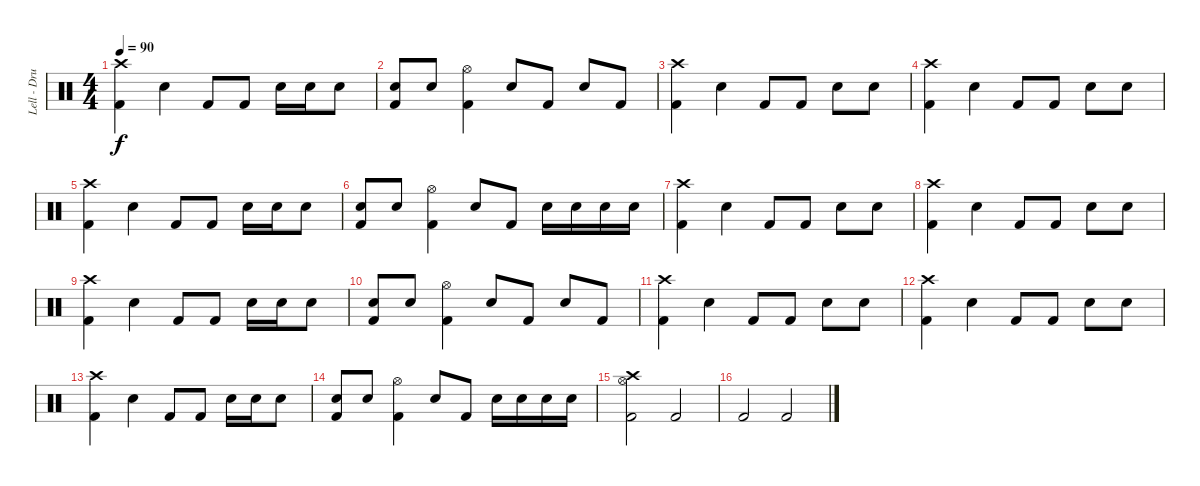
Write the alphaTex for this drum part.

\track ("Lell - Drums" "Lell - Dru") {instrument percussion}
\staff {score}
\articulation defaults
\ts (4 4)
\tempo 90
\clef neutral
\ks c
("Crash high (hit)" "Kick (hit) 2").4{dy f} "Snare (hit) 2".4 "Kick (hit) 2".8 "Kick (hit) 2".8 "Snare (hit) 2".16 "Snare (hit) 2".16 "Snare (hit) 2".8 |
("Snare (hit) 2" "Kick (hit) 2").8 "Snare (hit) 2".8 ("Hi-Hat (open)" "Kick (hit) 2").4 "Snare (hit) 2".8 "Kick (hit) 2".8 "Snare (hit) 2".8 "Kick (hit) 2".8 |
("Crash high (hit)" "Kick (hit) 2").4 "Snare (hit) 2".4 "Kick (hit) 2".8 "Kick (hit) 2".8 "Snare (hit) 2".8 "Snare (hit) 2".8 |
("Crash high (hit)" "Kick (hit) 2").4 "Snare (hit) 2".4 "Kick (hit) 2".8 "Kick (hit) 2".8 "Snare (hit) 2".8 "Snare (hit) 2".8 |
("Crash high (hit)" "Kick (hit) 2").4 "Snare (hit) 2".4 "Kick (hit) 2".8 "Kick (hit) 2".8 "Snare (hit) 2".16 "Snare (hit) 2".16 "Snare (hit) 2".8 |
("Snare (hit) 2" "Kick (hit) 2").8 "Snare (hit) 2".8 ("Hi-Hat (open)" "Kick (hit) 2").4 "Snare (hit) 2".8 "Kick (hit) 2".8 "Snare (hit) 2".16 "Snare (hit) 2".16 "Snare (hit) 2".16 "Snare (hit) 2".16 |
("Crash high (hit)" "Kick (hit) 2").4 "Snare (hit) 2".4 "Kick (hit) 2".8 "Kick (hit) 2".8 "Snare (hit) 2".8 "Snare (hit) 2".8 |
("Crash high (hit)" "Kick (hit) 2").4 "Snare (hit) 2".4 "Kick (hit) 2".8 "Kick (hit) 2".8 "Snare (hit) 2".8 "Snare (hit) 2".8 |
("Crash high (hit)" "Kick (hit) 2").4 "Snare (hit) 2".4 "Kick (hit) 2".8 "Kick (hit) 2".8 "Snare (hit) 2".16 "Snare (hit) 2".16 "Snare (hit) 2".8 |
("Snare (hit) 2" "Kick (hit) 2").8 "Snare (hit) 2".8 ("Hi-Hat (open)" "Kick (hit) 2").4 "Snare (hit) 2".8 "Kick (hit) 2".8 "Snare (hit) 2".8 "Kick (hit) 2".8 |
("Crash high (hit)" "Kick (hit) 2").4 "Snare (hit) 2".4 "Kick (hit) 2".8 "Kick (hit) 2".8 "Snare (hit) 2".8 "Snare (hit) 2".8 |
("Crash high (hit)" "Kick (hit) 2").4 "Snare (hit) 2".4 "Kick (hit) 2".8 "Kick (hit) 2".8 "Snare (hit) 2".8 "Snare (hit) 2".8 |
("Crash high (hit)" "Kick (hit) 2").4 "Snare (hit) 2".4 "Kick (hit) 2".8 "Kick (hit) 2".8 "Snare (hit) 2".16 "Snare (hit) 2".16 "Snare (hit) 2".8 |
("Snare (hit) 2" "Kick (hit) 2").8 "Snare (hit) 2".8 ("Hi-Hat (open)" "Kick (hit) 2").4 "Snare (hit) 2".8 "Kick (hit) 2".8 "Snare (hit) 2".16 "Snare (hit) 2".16 "Snare (hit) 2".16 "Snare (hit) 2".16 |
("Crash high (hit)" "Hi-Hat (open)" "Kick (hit) 2").2 "Kick (hit) 2".2 |
"Kick (hit) 2".2 "Kick (hit) 2".2
